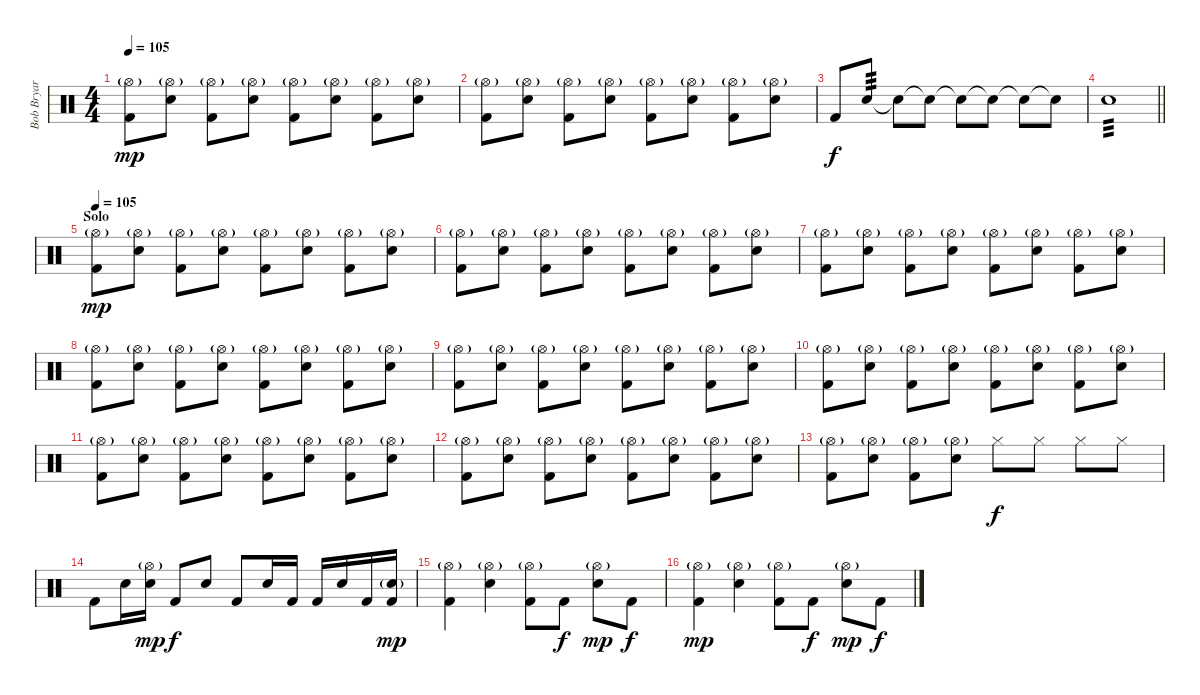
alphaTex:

\track ("Bob Bryar" "Bob Bryar") {instrument percussion}
\staff {score}
\articulation defaults
\ts (4 4)
\tempo 105
\clef neutral
\ks c
("Hi-Hat (open)"{g} "Kick (hit) 2").8{dy mp} ("Hi-Hat (open)"{g} "Electric Snare (hit)").8 ("Hi-Hat (open)"{g} "Kick (hit) 2").8 ("Hi-Hat (open)"{g} "Electric Snare (hit)").8 ("Hi-Hat (open)"{g} "Kick (hit) 2").8 ("Hi-Hat (open)"{g} "Electric Snare (hit)").8 ("Hi-Hat (open)"{g} "Kick (hit) 2").8 ("Hi-Hat (open)"{g} "Electric Snare (hit)").8 |
("Hi-Hat (open)"{g} "Kick (hit) 2").8 ("Hi-Hat (open)"{g} "Electric Snare (hit)").8 ("Hi-Hat (open)"{g} "Kick (hit) 2").8 ("Hi-Hat (open)"{g} "Electric Snare (hit)").8 ("Hi-Hat (open)"{g} "Kick (hit) 2").8 ("Hi-Hat (open)"{g} "Electric Snare (hit)").8 ("Hi-Hat (open)"{g} "Kick (hit) 2").8 ("Hi-Hat (open)"{g} "Electric Snare (hit)").8 |
"Kick (hit) 2".8{dy f} "Electric Snare (hit)".8{tp 3} "Snare (hit)"{t}.8 "Snare (hit)"{t}.8 "Snare (hit)"{t}.8 "Snare (hit)"{t}.8 "Snare (hit)"{t}.8 "Snare (hit)"{t}.8 |
\barLineRight lightlight "Snare (hit) 2".1{tp 3}
|
\section ("" "Solo")
\tempo 105
("Hi-Hat (open)"{g} "Kick (hit) 2").8{dy mp} ("Hi-Hat (open)"{g} "Electric Snare (hit)").8 ("Hi-Hat (open)"{g} "Kick (hit) 2").8 ("Hi-Hat (open)"{g} "Electric Snare (hit)").8 ("Hi-Hat (open)"{g} "Kick (hit) 2").8 ("Hi-Hat (open)"{g} "Electric Snare (hit)").8 ("Hi-Hat (open)"{g} "Kick (hit) 2").8 ("Hi-Hat (open)"{g} "Electric Snare (hit)").8 |
("Hi-Hat (open)"{g} "Kick (hit) 2").8 ("Hi-Hat (open)"{g} "Electric Snare (hit)").8 ("Hi-Hat (open)"{g} "Kick (hit) 2").8 ("Hi-Hat (open)"{g} "Electric Snare (hit)").8 ("Hi-Hat (open)"{g} "Kick (hit) 2").8 ("Hi-Hat (open)"{g} "Electric Snare (hit)").8 ("Hi-Hat (open)"{g} "Kick (hit) 2").8 ("Hi-Hat (open)"{g} "Electric Snare (hit)").8 |
("Hi-Hat (open)"{g} "Kick (hit) 2").8 ("Hi-Hat (open)"{g} "Electric Snare (hit)").8 ("Hi-Hat (open)"{g} "Kick (hit) 2").8 ("Hi-Hat (open)"{g} "Electric Snare (hit)").8 ("Hi-Hat (open)"{g} "Kick (hit) 2").8 ("Hi-Hat (open)"{g} "Electric Snare (hit)").8 ("Hi-Hat (open)"{g} "Kick (hit) 2").8 ("Hi-Hat (open)"{g} "Electric Snare (hit)").8 |
("Hi-Hat (open)"{g} "Kick (hit) 2").8 ("Hi-Hat (open)"{g} "Electric Snare (hit)").8 ("Hi-Hat (open)"{g} "Kick (hit) 2").8 ("Hi-Hat (open)"{g} "Electric Snare (hit)").8 ("Hi-Hat (open)"{g} "Kick (hit) 2").8 ("Hi-Hat (open)"{g} "Electric Snare (hit)").8 ("Hi-Hat (open)"{g} "Kick (hit) 2").8 ("Hi-Hat (open)"{g} "Electric Snare (hit)").8 |
("Hi-Hat (open)"{g} "Kick (hit) 2").8 ("Hi-Hat (open)"{g} "Electric Snare (hit)").8 ("Hi-Hat (open)"{g} "Kick (hit) 2").8 ("Hi-Hat (open)"{g} "Electric Snare (hit)").8 ("Hi-Hat (open)"{g} "Kick (hit) 2").8 ("Hi-Hat (open)"{g} "Electric Snare (hit)").8 ("Hi-Hat (open)"{g} "Kick (hit) 2").8 ("Hi-Hat (open)"{g} "Electric Snare (hit)").8 |
("Hi-Hat (open)"{g} "Kick (hit) 2").8 ("Hi-Hat (open)"{g} "Electric Snare (hit)").8 ("Hi-Hat (open)"{g} "Kick (hit) 2").8 ("Hi-Hat (open)"{g} "Electric Snare (hit)").8 ("Hi-Hat (open)"{g} "Kick (hit) 2").8 ("Hi-Hat (open)"{g} "Electric Snare (hit)").8 ("Hi-Hat (open)"{g} "Kick (hit) 2").8 ("Hi-Hat (open)"{g} "Electric Snare (hit)").8 |
("Hi-Hat (open)"{g} "Kick (hit) 2").8 ("Hi-Hat (open)"{g} "Electric Snare (hit)").8 ("Hi-Hat (open)"{g} "Kick (hit) 2").8 ("Hi-Hat (open)"{g} "Electric Snare (hit)").8 ("Hi-Hat (open)"{g} "Kick (hit) 2").8 ("Hi-Hat (open)"{g} "Electric Snare (hit)").8 ("Hi-Hat (open)"{g} "Kick (hit) 2").8 ("Hi-Hat (open)"{g} "Electric Snare (hit)").8 |
("Hi-Hat (open)"{g} "Kick (hit) 2").8 ("Hi-Hat (open)"{g} "Electric Snare (hit)").8 ("Hi-Hat (open)"{g} "Kick (hit) 2").8 ("Hi-Hat (open)"{g} "Electric Snare (hit)").8 ("Hi-Hat (open)"{g} "Kick (hit) 2").8 ("Hi-Hat (open)"{g} "Electric Snare (hit)").8 ("Hi-Hat (open)"{g} "Kick (hit) 2").8 ("Hi-Hat (open)"{g} "Electric Snare (hit)").8 |
("Hi-Hat (open)"{g} "Kick (hit) 2").8 ("Hi-Hat (open)"{g} "Electric Snare (hit)").8 ("Hi-Hat (open)"{g} "Kick (hit) 2").8 ("Hi-Hat (open)"{g} "Electric Snare (hit)").8 "Hi-Hat (closed)".8{dy f} "Hi-Hat (closed)".8 "Hi-Hat (closed)".8 "Hi-Hat (closed)".8 |
"Kick (hit) 2".8 "Electric Snare (hit)".16 ("Hi-Hat (open)"{g} "Electric Snare (hit)").16{dy mp} "Kick (hit) 2".8{dy f} "Electric Snare (hit)".8 "Kick (hit) 2".8 "Electric Snare (hit)".16 "Kick (hit) 2".16 "Kick (hit) 2".16 "Electric Snare (hit)".16 "Kick (hit) 2".16 ("Electric Snare (hit)"{g} "Kick (hit) 2").16{dy mp} |
("Hi-Hat (open)"{g} "Kick (hit) 2").4 ("Hi-Hat (open)"{g} "Electric Snare (hit)").4 ("Hi-Hat (open)"{g} "Kick (hit) 2").8 "Kick (hit) 2".8{dy f} ("Hi-Hat (open)"{g} "Electric Snare (hit)").8{dy mp} "Kick (hit) 2".8{dy f} |
("Hi-Hat (open)"{g} "Kick (hit) 2").4{dy mp} ("Hi-Hat (open)"{g} "Electric Snare (hit)").4 ("Hi-Hat (open)"{g} "Kick (hit) 2").8 "Kick (hit) 2".8{dy f} ("Hi-Hat (open)"{g} "Electric Snare (hit)").8{dy mp} "Kick (hit) 2".8{dy f}
